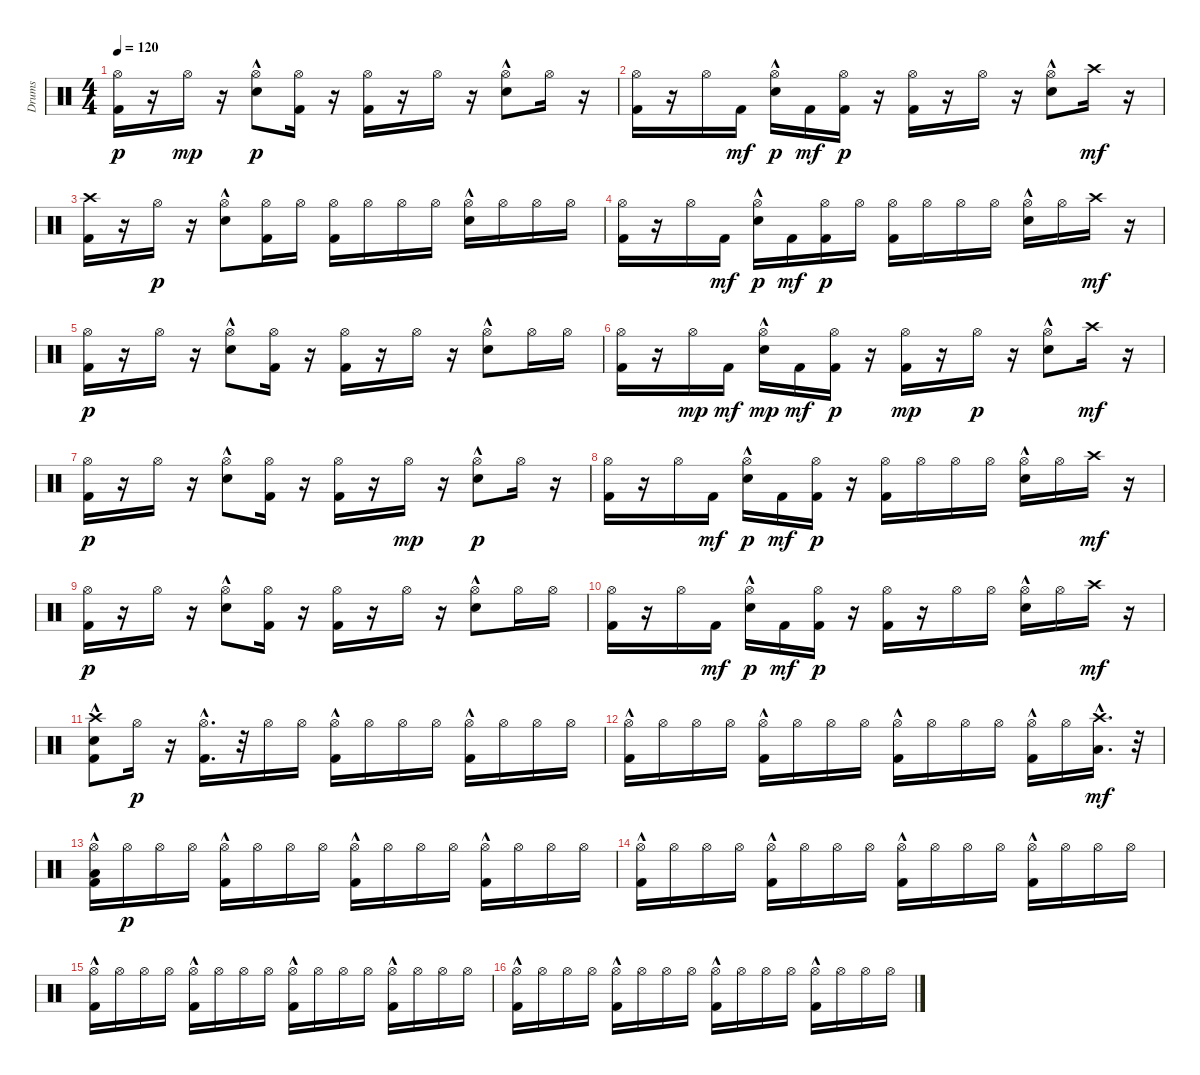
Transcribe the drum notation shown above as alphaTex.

\track ("Drums" "Drums") {instrument percussion}
\staff {score}
\articulation defaults
\ts (4 4)
\tempo 120
\clef neutral
\ks c
("Kick (hit) 2" "Hi-Hat (open)").16{dy p} r.16 "Hi-Hat (open)".16{dy mp} r.16 ("Electric Snare (hit)"{hac} "Hi-Hat (open)").8{dy p} ("Kick (hit) 2" "Hi-Hat (open)").16 r.16 ("Kick (hit) 2" "Hi-Hat (open)").16 r.16 "Hi-Hat (open)".16 r.16 ("Electric Snare (hit)"{hac} "Hi-Hat (open)").8 "Hi-Hat (open)".16 r.16 |
("Kick (hit) 2" "Hi-Hat (open)").16 r.16 "Hi-Hat (open)".16 "Kick (hit) 2".16{dy mf} ("Electric Snare (hit)"{hac} "Hi-Hat (open)").16{dy p} "Kick (hit) 2".16{dy mf} ("Kick (hit) 2" "Hi-Hat (open)").16{dy p} r.16 ("Kick (hit) 2" "Hi-Hat (open)").16 r.16 "Hi-Hat (open)".16 r.16 ("Electric Snare (hit)"{hac} "Hi-Hat (open)").8 "Crash high (hit)".16{dy mf} r.16 |
("Kick (hit) 2" "Crash high (hit)").16 r.16 "Hi-Hat (open)".16{dy p} r.16 ("Electric Snare (hit)"{hac} "Hi-Hat (open)").8 ("Kick (hit) 2" "Hi-Hat (open)").16 "Hi-Hat (open)".16 ("Kick (hit) 2" "Hi-Hat (open)").16 "Hi-Hat (open)".16 "Hi-Hat (open)".16 "Hi-Hat (open)".16 ("Electric Snare (hit)"{hac} "Hi-Hat (open)").16 "Hi-Hat (open)".16 "Hi-Hat (open)".16 "Hi-Hat (open)".16 |
("Kick (hit) 2" "Hi-Hat (open)").16 r.16 "Hi-Hat (open)".16 "Kick (hit) 2".16{dy mf} ("Electric Snare (hit)"{hac} "Hi-Hat (open)").16{dy p} "Kick (hit) 2".16{dy mf} ("Kick (hit) 2" "Hi-Hat (open)").16{dy p} "Hi-Hat (open)".16 ("Kick (hit) 2" "Hi-Hat (open)").16 "Hi-Hat (open)".16 "Hi-Hat (open)".16 "Hi-Hat (open)".16 ("Electric Snare (hit)"{hac} "Hi-Hat (open)").16 "Hi-Hat (open)".16 "Crash high (hit)".16{dy mf} r.16 |
("Kick (hit) 2" "Hi-Hat (open)").16{dy p} r.16 "Hi-Hat (open)".16 r.16 ("Electric Snare (hit)"{hac} "Hi-Hat (open)").8 ("Kick (hit) 2" "Hi-Hat (open)").16 r.16 ("Kick (hit) 2" "Hi-Hat (open)").16 r.16 "Hi-Hat (open)".16 r.16 ("Electric Snare (hit)"{hac} "Hi-Hat (open)").8 "Hi-Hat (open)".16 "Hi-Hat (open)".16 |
("Kick (hit) 2" "Hi-Hat (open)").16 r.16 "Hi-Hat (open)".16{dy mp} "Kick (hit) 2".16{dy mf} ("Electric Snare (hit)"{hac} "Hi-Hat (open)").16{dy mp} "Kick (hit) 2".16{dy mf} ("Kick (hit) 2" "Hi-Hat (open)").16{dy p} r.16 ("Kick (hit) 2" "Hi-Hat (open)").16{dy mp} r.16 "Hi-Hat (open)".16{dy p} r.16 ("Electric Snare (hit)"{hac} "Hi-Hat (open)").8 "Crash high (hit)".16{dy mf} r.16 |
("Kick (hit) 2" "Hi-Hat (open)").16{dy p} r.16 "Hi-Hat (open)".16 r.16 ("Electric Snare (hit)"{hac} "Hi-Hat (open)").8 ("Kick (hit) 2" "Hi-Hat (open)").16 r.16 ("Kick (hit) 2" "Hi-Hat (open)").16 r.16 "Hi-Hat (open)".16{dy mp} r.16 ("Electric Snare (hit)"{hac} "Hi-Hat (open)").8{dy p} "Hi-Hat (open)".16 r.16 |
("Kick (hit) 2" "Hi-Hat (open)").16 r.16 "Hi-Hat (open)".16 "Kick (hit) 2".16{dy mf} ("Electric Snare (hit)"{hac} "Hi-Hat (open)").16{dy p} "Kick (hit) 2".16{dy mf} ("Kick (hit) 2" "Hi-Hat (open)").16{dy p} r.16 ("Kick (hit) 2" "Hi-Hat (open)").16 "Hi-Hat (open)".16 "Hi-Hat (open)".16 "Hi-Hat (open)".16 ("Electric Snare (hit)"{hac} "Hi-Hat (open)").16 "Hi-Hat (open)".16 "Crash high (hit)".16{dy mf} r.16 |
("Kick (hit) 2" "Hi-Hat (open)").16{dy p} r.16 "Hi-Hat (open)".16 r.16 ("Electric Snare (hit)"{hac} "Hi-Hat (open)").8 ("Kick (hit) 2" "Hi-Hat (open)").16 r.16 ("Kick (hit) 2" "Hi-Hat (open)").16 r.16 "Hi-Hat (open)".16 r.16 ("Electric Snare (hit)"{hac} "Hi-Hat (open)").8 "Hi-Hat (open)".16 "Hi-Hat (open)".16 |
("Kick (hit) 2" "Hi-Hat (open)").16 r.16 "Hi-Hat (open)".16 "Kick (hit) 2".16{dy mf} ("Electric Snare (hit)"{hac} "Hi-Hat (open)").16{dy p} "Kick (hit) 2".16{dy mf} ("Kick (hit) 2" "Hi-Hat (open)").16{dy p} r.16 ("Kick (hit) 2" "Hi-Hat (open)").16 r.16 "Hi-Hat (open)".16 "Hi-Hat (open)".16 ("Electric Snare (hit)"{hac} "Hi-Hat (open)").16 "Hi-Hat (open)".16 "Crash high (hit)".16{dy mf} r.16 |
("Kick (hit) 2"{hac} "Crash high (hit)" "Electric Snare (hit)"{hac}).8 "Hi-Hat (open)".16{dy p} r.16 ("Kick (hit) 2"{hac} "Hi-Hat (open)").16{d} r.32 "Hi-Hat (open)".16 "Hi-Hat (open)".16 ("Kick (hit) 2"{hac} "Hi-Hat (open)").16 "Hi-Hat (open)".16 "Hi-Hat (open)".16 "Hi-Hat (open)".16 ("Kick (hit) 2"{hac} "Hi-Hat (open)").16 "Hi-Hat (open)".16 "Hi-Hat (open)".16 "Hi-Hat (open)".16 |
("Kick (hit) 2"{hac} "Hi-Hat (open)").16 "Hi-Hat (open)".16 "Hi-Hat (open)".16 "Hi-Hat (open)".16 ("Kick (hit) 2"{hac} "Hi-Hat (open)").16 "Hi-Hat (open)".16 "Hi-Hat (open)".16 "Hi-Hat (open)".16 ("Kick (hit) 2"{hac} "Hi-Hat (open)").16 "Hi-Hat (open)".16 "Hi-Hat (open)".16 "Hi-Hat (open)".16 ("Kick (hit) 2"{hac} "Hi-Hat (open)").16 "Hi-Hat (open)".16 ("Low Tom (hit)"{hac} "Crash high (hit)").16{d dy mf} r.32 |
("Low Tom (hit)"{hac} "Hi-Hat (open)" "Kick (hit) 2"{hac}).16 "Hi-Hat (open)".16{dy p} "Hi-Hat (open)".16 "Hi-Hat (open)".16 ("Kick (hit) 2"{hac} "Hi-Hat (open)").16 "Hi-Hat (open)".16 "Hi-Hat (open)".16 "Hi-Hat (open)".16 ("Kick (hit) 2"{hac} "Hi-Hat (open)").16 "Hi-Hat (open)".16 "Hi-Hat (open)".16 "Hi-Hat (open)".16 ("Kick (hit) 2"{hac} "Hi-Hat (open)").16 "Hi-Hat (open)".16 "Hi-Hat (open)".16 "Hi-Hat (open)".16 |
("Kick (hit) 2"{hac} "Hi-Hat (open)").16 "Hi-Hat (open)".16 "Hi-Hat (open)".16 "Hi-Hat (open)".16 ("Kick (hit) 2"{hac} "Hi-Hat (open)").16 "Hi-Hat (open)".16 "Hi-Hat (open)".16 "Hi-Hat (open)".16 ("Kick (hit) 2"{hac} "Hi-Hat (open)").16 "Hi-Hat (open)".16 "Hi-Hat (open)".16 "Hi-Hat (open)".16 ("Kick (hit) 2"{hac} "Hi-Hat (open)").16 "Hi-Hat (open)".16 "Hi-Hat (open)".16 "Hi-Hat (open)".16 |
("Kick (hit) 2"{hac} "Hi-Hat (open)").16 "Hi-Hat (open)".16 "Hi-Hat (open)".16 "Hi-Hat (open)".16 ("Kick (hit) 2"{hac} "Hi-Hat (open)").16 "Hi-Hat (open)".16 "Hi-Hat (open)".16 "Hi-Hat (open)".16 ("Kick (hit) 2"{hac} "Hi-Hat (open)").16 "Hi-Hat (open)".16 "Hi-Hat (open)".16 "Hi-Hat (open)".16 ("Kick (hit) 2"{hac} "Hi-Hat (open)").16 "Hi-Hat (open)".16 "Hi-Hat (open)".16 "Hi-Hat (open)".16 |
("Kick (hit) 2"{hac} "Hi-Hat (open)").16 "Hi-Hat (open)".16 "Hi-Hat (open)".16 "Hi-Hat (open)".16 ("Kick (hit) 2"{hac} "Hi-Hat (open)").16 "Hi-Hat (open)".16 "Hi-Hat (open)".16 "Hi-Hat (open)".16 ("Kick (hit) 2"{hac} "Hi-Hat (open)").16 "Hi-Hat (open)".16 "Hi-Hat (open)".16 "Hi-Hat (open)".16 ("Kick (hit) 2"{hac} "Hi-Hat (open)").16 "Hi-Hat (open)".16 "Hi-Hat (open)".16 "Hi-Hat (open)".16
